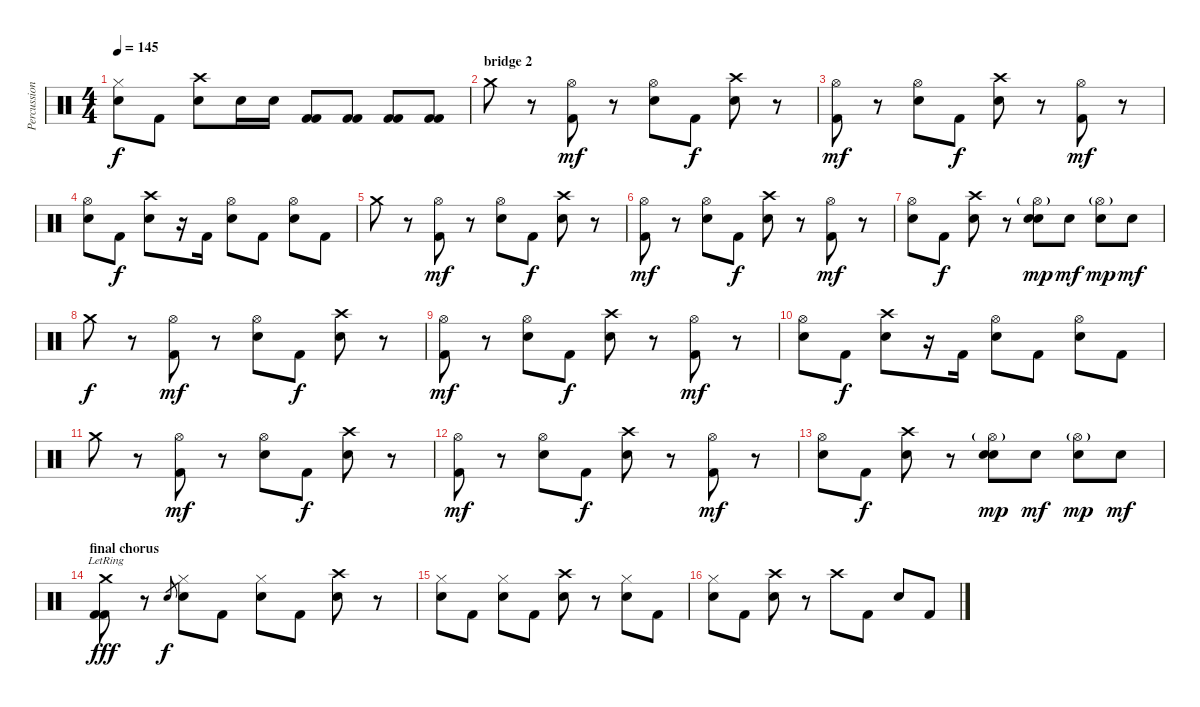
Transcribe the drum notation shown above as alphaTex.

\track ("Percussion" "Percussion") {instrument percussion}
\staff {score}
\articulation defaults
\ts (4 4)
\tempo 145
\clef neutral
\ks c
("Hi-Hat (closed)" "Electric Snare (hit)").8{dy f} "Kick (hit) 2".8 ("Crash high (hit)" "Snare (hit) 2").8 "Snare (hit) 2".16 "Snare (hit) 2".16 ("Kick (hit) 2" "Kick (hit) 2").8 ("Kick (hit) 2" "Kick (hit) 2").8 ("Kick (hit) 2" "Kick (hit) 2").8 ("Kick (hit) 2" "Kick (hit) 2").8 |
\section ("" "bridge 2")
"Crash medium (hit)".8 r.8 ("Hi-Hat (open)" "Kick (hit) 2").8{dy mf} r.8 ("Hi-Hat (open)" "Snare (hit) 2").8 "Kick (hit) 2".8{dy f} ("Crash high (hit)" "Snare (hit) 2").8 r.8 |
("Hi-Hat (open)" "Kick (hit) 2").8{dy mf} r.8 ("Hi-Hat (open)" "Snare (hit) 2").8 "Kick (hit) 2".8{dy f} ("Crash high (hit)" "Snare (hit) 2").8 r.8 ("Hi-Hat (open)" "Kick (hit) 2").8{dy mf} r.8 |
("Hi-Hat (open)" "Snare (hit) 2").8 "Kick (hit) 2".8{dy f} ("Crash high (hit)" "Snare (hit) 2").8 r.16 "Kick (hit) 2".16 ("Hi-Hat (open)" "Snare (hit) 2").8 "Kick (hit) 2".8 ("Hi-Hat (open)" "Snare (hit) 2").8 "Kick (hit) 2".8 |
"Crash medium (hit)".8 r.8 ("Hi-Hat (open)" "Kick (hit) 2").8{dy mf} r.8 ("Hi-Hat (open)" "Snare (hit) 2").8 "Kick (hit) 2".8{dy f} ("Crash high (hit)" "Snare (hit) 2").8 r.8 |
("Hi-Hat (open)" "Kick (hit) 2").8{dy mf} r.8 ("Hi-Hat (open)" "Snare (hit) 2").8 "Kick (hit) 2".8{dy f} ("Crash high (hit)" "Snare (hit) 2").8 r.8 ("Hi-Hat (open)" "Kick (hit) 2").8{dy mf} r.8 |
("Hi-Hat (open)" "Snare (hit) 2").8 "Kick (hit) 2".8{dy f} ("Crash high (hit)" "Snare (hit) 2").8 r.8 ("Hi-Hat (open)"{g} "Electric Snare (hit)" "Electric Snare (hit)").8{bd 480 dy mp} "Electric Snare (hit)".8{dy mf} ("Hi-Hat (open)"{g} "Electric Snare (hit)").8{dy mp} "Electric Snare (hit)".8{dy mf} |
"Crash medium (hit)".8{dy f} r.8 ("Hi-Hat (open)" "Kick (hit) 2").8{dy mf} r.8 ("Hi-Hat (open)" "Snare (hit) 2").8 "Kick (hit) 2".8{dy f} ("Crash high (hit)" "Snare (hit) 2").8 r.8 |
("Hi-Hat (open)" "Kick (hit) 2").8{dy mf} r.8 ("Hi-Hat (open)" "Snare (hit) 2").8 "Kick (hit) 2".8{dy f} ("Crash high (hit)" "Snare (hit) 2").8 r.8 ("Hi-Hat (open)" "Kick (hit) 2").8{dy mf} r.8 |
("Hi-Hat (open)" "Snare (hit) 2").8 "Kick (hit) 2".8{dy f} ("Crash high (hit)" "Snare (hit) 2").8 r.16 "Kick (hit) 2".16 ("Hi-Hat (open)" "Snare (hit) 2").8 "Kick (hit) 2".8 ("Hi-Hat (open)" "Snare (hit) 2").8 "Kick (hit) 2".8 |
"Crash medium (hit)".8 r.8 ("Hi-Hat (open)" "Kick (hit) 2").8{dy mf} r.8 ("Hi-Hat (open)" "Snare (hit) 2").8 "Kick (hit) 2".8{dy f} ("Crash high (hit)" "Snare (hit) 2").8 r.8 |
("Hi-Hat (open)" "Kick (hit) 2").8{dy mf} r.8 ("Hi-Hat (open)" "Snare (hit) 2").8 "Kick (hit) 2".8{dy f} ("Crash high (hit)" "Snare (hit) 2").8 r.8 ("Hi-Hat (open)" "Kick (hit) 2").8{dy mf} r.8 |
("Hi-Hat (open)" "Snare (hit) 2").8 "Kick (hit) 2".8{dy f} ("Crash high (hit)" "Snare (hit) 2").8 r.8 ("Hi-Hat (open)"{g} "Electric Snare (hit)" "Electric Snare (hit)").8{bd 480 dy mp} "Electric Snare (hit)".8{dy mf} ("Hi-Hat (open)"{g} "Electric Snare (hit)").8{dy mp} "Electric Snare (hit)".8{dy mf} |
\section ("" "final chorus")
("Crash medium (hit)"{lr} "Kick (hit) 2" "Kick (hit) 2").8{dy fff} r.8 "Electric Snare (hit)".8{gr dy f} ("Hi-Hat (closed)" "Electric Snare (hit)").8 "Kick (hit) 2".8 ("Hi-Hat (closed)" "Electric Snare (hit)").8 "Kick (hit) 2".8 ("Crash high (hit)" "Snare (hit) 2").8 r.8 |
("Hi-Hat (closed)" "Electric Snare (hit)").8 "Kick (hit) 2".8 ("Hi-Hat (closed)" "Electric Snare (hit)").8 "Kick (hit) 2".8 ("Crash high (hit)" "Snare (hit) 2").8 r.8 ("Hi-Hat (closed)" "Electric Snare (hit)").8 "Kick (hit) 2".8 |
("Hi-Hat (closed)" "Electric Snare (hit)").8 "Kick (hit) 2".8 ("Crash high (hit)" "Snare (hit) 2").8 r.8 "Crash high (hit)".8 "Kick (hit) 2".8 "Snare (hit) 2".8 "Kick (hit) 2".8
